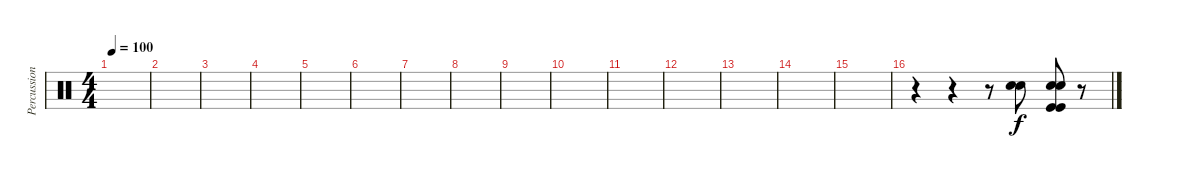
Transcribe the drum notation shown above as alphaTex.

\track ("Percussions" "Percussion") {instrument percussion}
\staff {score}
\articulation defaults
\ts (4 4)
\tempo 100
\clef neutral
\ks c
|
|
|
|
|
|
|
|
|
|
|
|
|
|
|
r.4 r.4 r.8 ("Hand Clap (hit)" "Hand Clap (hit)").8 ("Hand Clap (hit)" "Hand Clap (hit)" "Kick (hit)" "Kick (hit)").8 r.8
